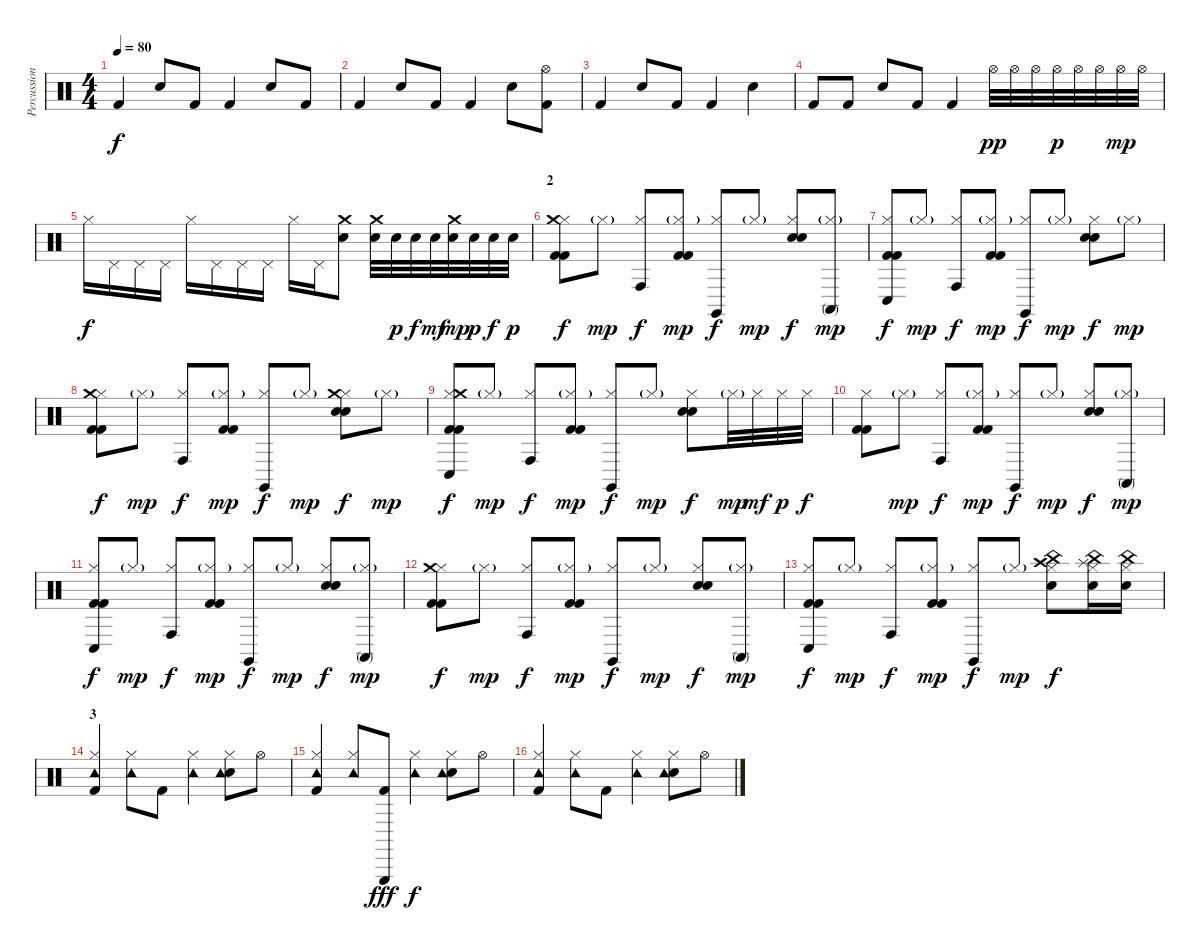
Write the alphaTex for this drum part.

\track ("Percussion" "Percussion") {instrument percussion}
\staff {score}
\articulation defaults
\ts (4 4)
\tempo 80
\clef neutral
\ks c "Kick (hit) 2".4{dy f} "Snare (hit) 2".8 "Kick (hit) 2".8 "Kick (hit) 2".4 "Snare (hit) 2".8 "Kick (hit) 2".8
|
"Kick (hit) 2".4 "Snare (hit) 2".8 "Kick (hit) 2".8 "Kick (hit) 2".4 "Snare (hit) 2".8 ("Kick (hit) 2" "Hi-Hat (open)").8 |
"Kick (hit) 2".4 "Snare (hit) 2".8 "Kick (hit) 2".8 "Kick (hit) 2".4 "Snare (hit) 2".4 |
"Kick (hit) 2".8 "Kick (hit) 2".8 "Snare (hit) 2".8 "Kick (hit) 2".8 "Kick (hit) 2".4 "Hi-Hat (open)".32{dy pp} "Hi-Hat (open)".32 "Hi-Hat (open)".32 "Hi-Hat (open)".32{dy p} "Hi-Hat (open)".32 "Hi-Hat (open)".32 "Hi-Hat (open)".32{dy mp} "Hi-Hat (open)".32 |
"Hi-Hat (closed)".16{dy f} "Pedal Hi-Hat (hit)".16 "Pedal Hi-Hat (hit)".16 "Pedal Hi-Hat (hit)".16 "Hi-Hat (closed)".16 "Pedal Hi-Hat (hit)".16 "Pedal Hi-Hat (hit)".16 "Pedal Hi-Hat (hit)".16 "Hi-Hat (closed)".16 "Pedal Hi-Hat (hit)".16 ("Snare (hit) 2" "Crash medium (hit)").8 ("Snare (hit) 2" "Crash medium (hit)").32 "Snare (hit) 2".32{dy p} "Snare (hit) 2".32{dy f} "Snare (hit) 2".32{dy mf} ("Snare (hit) 2" "Crash medium (hit)").32{dy mp} "Snare (hit) 2".32{dy p} "Snare (hit) 2".32{dy f} "Snare (hit) 2".32{dy p} |
\section ("" "2")
("Kick (hit) 2" "Kick (hit) 2" "Hi-Hat (closed)" "Crash medium (hit)").8{dy f} "Hi-Hat (closed)"{g}.8{dy mp} ("Hi-Hat (closed)" "Conga high (hit)").8{dy f} ("Kick (hit) 2" "Kick (hit) 2" "Hi-Hat (closed)"{g}).8{dy mp} ("Hi-Hat (closed)" "Claves (hit)").8{dy f} "Hi-Hat (closed)"{g}.8{dy mp} ("Snare (hit) 2" "Snare (hit) 2" "Hi-Hat (closed)").8{dy f} ("Hi-Hat (closed)"{g} "Conga high (mute)").8{dy mp} |
("Kick (hit) 2" "Kick (hit) 2" "Hi-Hat (closed)" "Conga low (hit)").8{dy f} "Hi-Hat (closed)"{g}.8{dy mp} ("Hi-Hat (closed)" "Conga high (hit)").8{dy f} ("Kick (hit) 2" "Kick (hit) 2" "Hi-Hat (closed)"{g}).8{dy mp} ("Hi-Hat (closed)" "Claves (hit)").8{dy f} "Hi-Hat (closed)"{g}.8{dy mp} ("Snare (hit) 2" "Snare (hit) 2" "Hi-Hat (closed)").8{dy f} "Hi-Hat (closed)"{g}.8{dy mp} |
("Kick (hit) 2" "Kick (hit) 2" "Hi-Hat (closed)" "Crash medium (hit)").8{dy f} "Hi-Hat (closed)"{g}.8{dy mp} ("Hi-Hat (closed)" "Conga high (hit)").8{dy f} ("Kick (hit) 2" "Kick (hit) 2" "Hi-Hat (closed)"{g}).8{dy mp} ("Hi-Hat (closed)" "Claves (hit)").8{dy f} "Hi-Hat (closed)"{g}.8{dy mp} ("Snare (hit) 2" "Snare (hit) 2" "Hi-Hat (closed)" "Crash medium (hit)").8{dy f} "Hi-Hat (closed)"{g}.8{dy mp} |
("Kick (hit) 2" "Kick (hit) 2" "Hi-Hat (closed)" "Crash medium (hit)" "Conga low (hit)").8{dy f} "Hi-Hat (closed)"{g}.8{dy mp} ("Hi-Hat (closed)" "Conga high (hit)").8{dy f} ("Kick (hit) 2" "Kick (hit) 2" "Hi-Hat (closed)"{g}).8{dy mp} ("Hi-Hat (closed)" "Claves (hit)").8{dy f} "Hi-Hat (closed)"{g}.8{dy mp} ("Snare (hit) 2" "Snare (hit) 2" "Hi-Hat (closed)").8{dy f} "Hi-Hat (closed)"{g}.32{dy mp} "Hi-Hat (closed)".32{dy mf} "Hi-Hat (closed)".32{dy p} "Hi-Hat (closed)".32{dy f} |
("Kick (hit) 2" "Kick (hit) 2" "Hi-Hat (closed)").8 "Hi-Hat (closed)"{g}.8{dy mp} ("Hi-Hat (closed)" "Conga high (hit)").8{dy f} ("Kick (hit) 2" "Kick (hit) 2" "Hi-Hat (closed)"{g}).8{dy mp} ("Hi-Hat (closed)" "Claves (hit)").8{dy f} "Hi-Hat (closed)"{g}.8{dy mp} ("Snare (hit) 2" "Snare (hit) 2" "Hi-Hat (closed)").8{dy f} ("Hi-Hat (closed)"{g} "Conga high (mute)").8{dy mp} |
("Kick (hit) 2" "Kick (hit) 2" "Hi-Hat (closed)" "Conga low (hit)").8{dy f} "Hi-Hat (closed)"{g}.8{dy mp} ("Hi-Hat (closed)" "Conga high (hit)").8{dy f} ("Kick (hit) 2" "Kick (hit) 2" "Hi-Hat (closed)"{g}).8{dy mp} ("Hi-Hat (closed)" "Claves (hit)").8{dy f} "Hi-Hat (closed)"{g}.8{dy mp} ("Snare (hit) 2" "Snare (hit) 2" "Hi-Hat (closed)").8{dy f} ("Hi-Hat (closed)"{g} "Conga high (mute)").8{dy mp} |
("Kick (hit) 2" "Kick (hit) 2" "Hi-Hat (closed)" "Crash medium (hit)").8{dy f} "Hi-Hat (closed)"{g}.8{dy mp} ("Hi-Hat (closed)" "Conga high (hit)").8{dy f} ("Kick (hit) 2" "Kick (hit) 2" "Hi-Hat (closed)"{g}).8{dy mp} ("Hi-Hat (closed)" "Claves (hit)").8{dy f} "Hi-Hat (closed)"{g}.8{dy mp} ("Snare (hit) 2" "Snare (hit) 2" "Hi-Hat (closed)").8{dy f} ("Hi-Hat (closed)"{g} "Conga high (mute)").8{dy mp} |
("Kick (hit) 2" "Kick (hit) 2" "Hi-Hat (closed)" "Conga low (hit)").8{dy f} "Hi-Hat (closed)"{g}.8{dy mp} ("Hi-Hat (closed)" "Conga high (hit)").8{dy f} ("Kick (hit) 2" "Kick (hit) 2" "Hi-Hat (closed)"{g}).8{dy mp} ("Hi-Hat (closed)" "Claves (hit)").8{dy f} "Hi-Hat (closed)"{g}.8{dy mp} ("Crash high (hit)" "Snare (hit) 2" "Hi-Hat (closed)" "China (hit)").8{dy f} ("Splash (hit)" "Snare (hit) 2" "Hi-Hat (closed)" "China (hit)").16 ("Snare (hit) 2" "Hi-Hat (closed)" "China (hit)").16 |
\section ("" "3")
("Kick (hit) 2" "Hi-Hat (closed)" "Tambourine (hit)").4 ("Hi-Hat (closed)" "Tambourine (hit)").8 "Kick (hit) 2".8 ("Hi-Hat (closed)" "Tambourine (hit)").4 ("Snare (hit) 2" "Hi-Hat (closed)" "Tambourine (hit)").8 "Hi-Hat (open)".8 |
("Kick (hit) 2" "Hi-Hat (closed)" "Tambourine (hit)").4 ("Hi-Hat (closed)" "Tambourine (hit)").8 ("Kick (hit) 2" "Triangle (hit)").8{dy fff} ("Hi-Hat (closed)" "Tambourine (hit)").4{dy f} ("Snare (hit) 2" "Hi-Hat (closed)" "Tambourine (hit)").8 "Hi-Hat (open)".8 |
("Kick (hit) 2" "Hi-Hat (closed)" "Tambourine (hit)").4 ("Hi-Hat (closed)" "Tambourine (hit)").8 "Kick (hit) 2".8 ("Hi-Hat (closed)" "Tambourine (hit)").4 ("Snare (hit) 2" "Hi-Hat (closed)" "Tambourine (hit)").8 "Hi-Hat (open)".8
